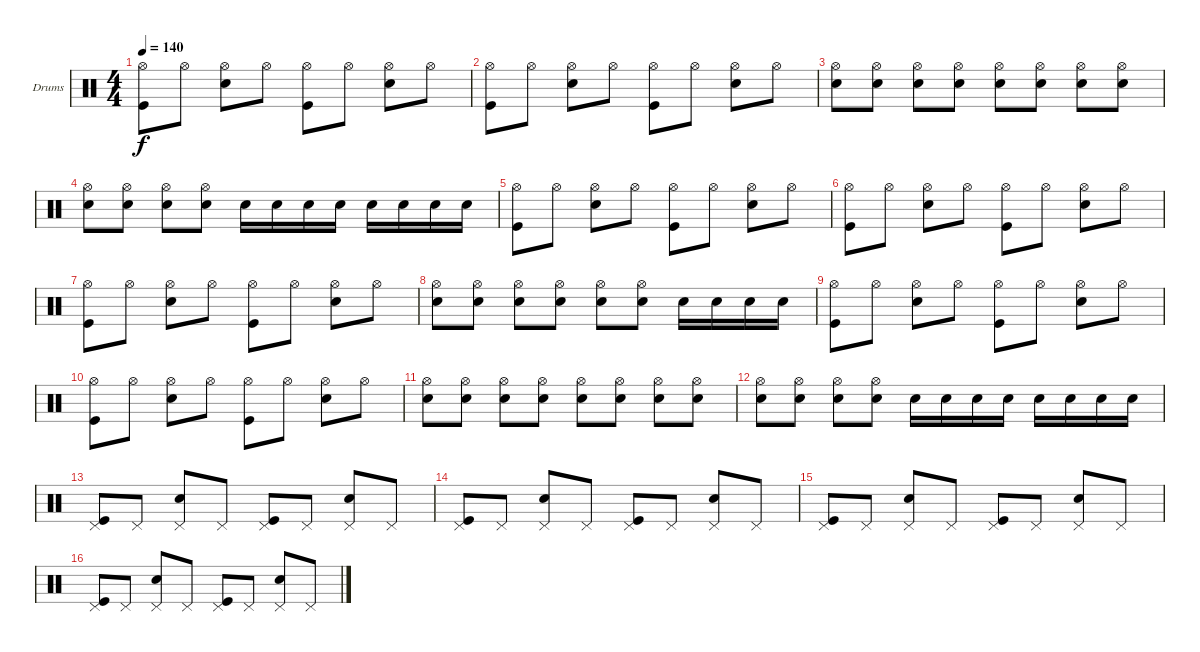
\bracketExtendMode groupsimilarinstruments
\firstSystemTrackNameOrientation horizontal
\otherSystemsTrackNameOrientation horizontal
\track ("Drumkit" "Drums") {instrument percussion}
\staff {score}
\articulation defaults
\ts (4 4)
\tempo 140
\clef neutral
\scale
0.333333
\ks c
("Hi-Hat (open)" "Kick (hit)").8{dy f} "Hi-Hat (open)".8 ("Hi-Hat (open)" "Snare (hit) 2").8 "Hi-Hat (open)".8 ("Hi-Hat (open)" "Kick (hit)").8 "Hi-Hat (open)".8 ("Hi-Hat (open)" "Snare (hit) 2").8 "Hi-Hat (open)".8 |
\scale
0.333333 ("Hi-Hat (open)" "Kick (hit)").8 "Hi-Hat (open)".8 ("Hi-Hat (open)" "Snare (hit) 2").8 "Hi-Hat (open)".8 ("Hi-Hat (open)" "Kick (hit)").8 "Hi-Hat (open)".8 ("Hi-Hat (open)" "Snare (hit) 2").8 "Hi-Hat (open)".8 |
\scale
0.333333 ("Hi-Hat (open)" "Snare (hit) 2").8 ("Hi-Hat (open)" "Snare (hit) 2").8 ("Hi-Hat (open)" "Snare (hit) 2").8 ("Hi-Hat (open)" "Snare (hit) 2").8 ("Hi-Hat (open)" "Snare (hit) 2").8 ("Hi-Hat (open)" "Snare (hit) 2").8 ("Hi-Hat (open)" "Snare (hit) 2").8 ("Hi-Hat (open)" "Snare (hit) 2").8 |
\scale
0.333333 ("Hi-Hat (open)" "Snare (hit) 2").8 ("Hi-Hat (open)" "Snare (hit) 2").8 ("Hi-Hat (open)" "Snare (hit) 2").8 ("Hi-Hat (open)" "Snare (hit) 2").8 "Snare (hit) 2".16 "Snare (hit) 2".16 "Snare (hit) 2".16 "Snare (hit) 2".16 "Snare (hit) 2".16 "Snare (hit) 2".16 "Snare (hit) 2".16 "Snare (hit) 2".16 |
\scale
0.333333 ("Hi-Hat (open)" "Kick (hit)").8 "Hi-Hat (open)".8 ("Hi-Hat (open)" "Snare (hit) 2").8 "Hi-Hat (open)".8 ("Hi-Hat (open)" "Kick (hit)").8 "Hi-Hat (open)".8 ("Hi-Hat (open)" "Snare (hit) 2").8 "Hi-Hat (open)".8 |
\scale
0.333333 ("Hi-Hat (open)" "Kick (hit)").8 "Hi-Hat (open)".8 ("Hi-Hat (open)" "Snare (hit) 2").8 "Hi-Hat (open)".8 ("Hi-Hat (open)" "Kick (hit)").8 "Hi-Hat (open)".8 ("Hi-Hat (open)" "Snare (hit) 2").8 "Hi-Hat (open)".8 |
\scale
0.333333 ("Hi-Hat (open)" "Kick (hit)").8 "Hi-Hat (open)".8 ("Hi-Hat (open)" "Snare (hit) 2").8 "Hi-Hat (open)".8 ("Hi-Hat (open)" "Kick (hit)").8 "Hi-Hat (open)".8 ("Hi-Hat (open)" "Snare (hit) 2").8 "Hi-Hat (open)".8 |
\scale
0.333333 ("Hi-Hat (open)" "Snare (hit) 2").8 ("Hi-Hat (open)" "Snare (hit) 2").8 ("Hi-Hat (open)" "Snare (hit) 2").8 ("Hi-Hat (open)" "Snare (hit) 2").8 ("Hi-Hat (open)" "Snare (hit) 2").8 ("Hi-Hat (open)" "Snare (hit) 2").8 "Snare (hit) 2".16 "Snare (hit) 2".16 "Snare (hit) 2".16 "Snare (hit) 2".16 |
\scale
0.333333 ("Hi-Hat (open)" "Kick (hit)").8 "Hi-Hat (open)".8 ("Hi-Hat (open)" "Snare (hit) 2").8 "Hi-Hat (open)".8 ("Hi-Hat (open)" "Kick (hit)").8 "Hi-Hat (open)".8 ("Hi-Hat (open)" "Snare (hit) 2").8 "Hi-Hat (open)".8 |
\scale
0.333333 ("Hi-Hat (open)" "Kick (hit)").8 "Hi-Hat (open)".8 ("Hi-Hat (open)" "Snare (hit) 2").8 "Hi-Hat (open)".8 ("Hi-Hat (open)" "Kick (hit)").8 "Hi-Hat (open)".8 ("Hi-Hat (open)" "Snare (hit) 2").8 "Hi-Hat (open)".8 |
\scale
0.333333 ("Hi-Hat (open)" "Snare (hit) 2").8 ("Hi-Hat (open)" "Snare (hit) 2").8 ("Hi-Hat (open)" "Snare (hit) 2").8 ("Hi-Hat (open)" "Snare (hit) 2").8 ("Hi-Hat (open)" "Snare (hit) 2").8 ("Hi-Hat (open)" "Snare (hit) 2").8 ("Hi-Hat (open)" "Snare (hit) 2").8 ("Hi-Hat (open)" "Snare (hit) 2").8 |
\scale
0.333333 ("Hi-Hat (open)" "Snare (hit) 2").8 ("Hi-Hat (open)" "Snare (hit) 2").8 ("Hi-Hat (open)" "Snare (hit) 2").8 ("Hi-Hat (open)" "Snare (hit) 2").8 "Snare (hit) 2".16 "Snare (hit) 2".16 "Snare (hit) 2".16 "Snare (hit) 2".16 "Snare (hit) 2".16 "Snare (hit) 2".16 "Snare (hit) 2".16 "Snare (hit) 2".16 |
\scale
0.333333 ("Pedal Hi-Hat (hit)" "Kick (hit)").8 "Pedal Hi-Hat (hit)".8 ("Pedal Hi-Hat (hit)" "Snare (hit) 2").8 "Pedal Hi-Hat (hit)".8 ("Pedal Hi-Hat (hit)" "Kick (hit)").8 "Pedal Hi-Hat (hit)".8 ("Pedal Hi-Hat (hit)" "Snare (hit) 2").8 "Pedal Hi-Hat (hit)".8 |
\scale
0.333333 ("Pedal Hi-Hat (hit)" "Kick (hit)").8 "Pedal Hi-Hat (hit)".8 ("Pedal Hi-Hat (hit)" "Snare (hit) 2").8 "Pedal Hi-Hat (hit)".8 ("Pedal Hi-Hat (hit)" "Kick (hit)").8 "Pedal Hi-Hat (hit)".8 ("Pedal Hi-Hat (hit)" "Snare (hit) 2").8 "Pedal Hi-Hat (hit)".8 |
\scale
0.333333 ("Pedal Hi-Hat (hit)" "Kick (hit)").8 "Pedal Hi-Hat (hit)".8 ("Pedal Hi-Hat (hit)" "Snare (hit) 2").8 "Pedal Hi-Hat (hit)".8 ("Pedal Hi-Hat (hit)" "Kick (hit)").8 "Pedal Hi-Hat (hit)".8 ("Pedal Hi-Hat (hit)" "Snare (hit) 2").8 "Pedal Hi-Hat (hit)".8 |
\scale
0.333333 ("Pedal Hi-Hat (hit)" "Kick (hit)").8 "Pedal Hi-Hat (hit)".8 ("Pedal Hi-Hat (hit)" "Snare (hit) 2").8 "Pedal Hi-Hat (hit)".8 ("Pedal Hi-Hat (hit)" "Kick (hit)").8 "Pedal Hi-Hat (hit)".8 ("Pedal Hi-Hat (hit)" "Snare (hit) 2").8 "Pedal Hi-Hat (hit)".8
